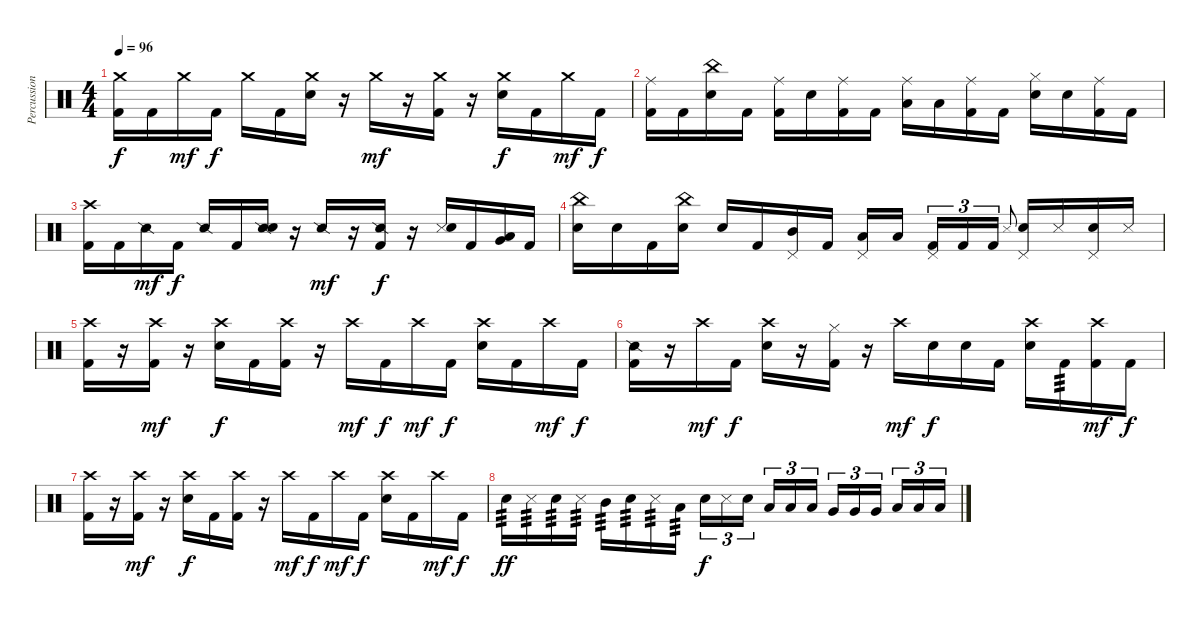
\track ("Percussion" "Percussion") {instrument percussion}
\staff {score}
\articulation defaults
\ts (4 4)
\tempo 96
\clef neutral
\ks c
("Crash medium (hit)" "Kick (hit) 2").16{dy f} "Kick (hit) 2".16 "Crash medium (hit)".16{dy mf} "Kick (hit) 2".16{dy f} "Crash medium (hit)".16 "Kick (hit) 2".16 ("Crash medium (hit)" "Snare (hit) 2").16 r.16 "Crash medium (hit)".16{dy mf} r.16 ("Crash medium (hit)" "Kick (hit) 2").16 r.16 ("Crash medium (hit)" "Snare (hit) 2").16{dy f} "Kick (hit) 2".16 "Crash medium (hit)".16{dy mf} "Kick (hit) 2".16{dy f} |
("Ride (middle)" "Kick (hit) 2").16 "Kick (hit) 2".16 ("China (hit)" "Snare (hit) 2").16 "Kick (hit) 2".16 ("Ride (middle)" "Kick (hit) 2").16 "Snare (hit) 2".16 ("Ride (middle)" "Kick (hit) 2").16 "Kick (hit) 2".16 ("Ride (middle)" "Low Tom (hit)").16 "Low Tom (hit)".16 ("Ride (middle)" "Kick (hit) 2").16 "Kick (hit) 2".16 ("Hi-Hat (closed)" "Snare (hit) 2").16 "Snare (hit) 2".16 ("Ride (middle)" "Kick (hit) 2").16 "Kick (hit) 2".16 |
("Crash high (hit)" "Kick (hit) 2").16 "Kick (hit) 2".16 "Snare (side stick) 2".16{dy mf} "Kick (hit) 2".16{dy f} "Snare (side stick) 2".16 "Kick (hit) 2".16 ("Snare (side stick) 2" "Snare (hit) 2").16 r.16 "Snare (side stick) 2".16{dy mf} r.16 ("Snare (side stick) 2" "Kick (hit) 2").16{dy f} r.16 ("Metronome (hit)" "Snare (hit) 2").16{bu 60} "Kick (hit) 2".16 ("Low Tom (hit)" "Very Low Tom (hit)").16{bu 60} "Kick (hit) 2".16 |
("China (hit)" "Snare (hit) 2").16 "Snare (hit) 2".16 "Kick (hit) 2".16 ("China (hit)" "Snare (hit) 2").16 "Snare (hit) 2".16 "Kick (hit) 2".16 ("Pedal Hi-Hat (hit)" "Mid Tom (hit)").16 "Kick (hit) 2".16 ("Pedal Hi-Hat (hit)" "Low Tom (hit)").16 "Low Tom (hit)".16{beam splitsecondary} ("Pedal Hi-Hat (hit)" "Kick (hit) 2").16{tu (3 2)} "Kick (hit) 2".16{tu (3 2)} "Kick (hit) 2".16{tu (3 2)} "Metronome (hit)".8{gr onbeat} ("Pedal Hi-Hat (hit)" "Snare (hit) 2").16 "Metronome (hit)".16 ("Pedal Hi-Hat (hit)" "Snare (hit) 2").16 "Metronome (hit)".16 |
("Crash high (hit)" "Kick (hit) 2").16 r.16 ("Crash high (hit)" "Kick (hit) 2").16{dy mf} r.16 ("Crash high (hit)" "Snare (hit) 2").16{dy f} "Kick (hit) 2".16 ("Crash high (hit)" "Kick (hit) 2").16 r.16 "Crash high (hit)".16{dy mf} "Kick (hit) 2".16{dy f} "Crash high (hit)".16{dy mf} "Kick (hit) 2".16{dy f} ("Crash high (hit)" "Snare (hit) 2").16 "Kick (hit) 2".16 "Crash high (hit)".16{dy mf} "Kick (hit) 2".16{dy f} |
("Snare (side stick) 2" "Kick (hit) 2").16 r.16 "Crash high (hit)".16{dy mf} "Kick (hit) 2".16{dy f} ("Crash high (hit)" "Snare (hit) 2").16 r.16 ("Hi-Hat (closed)" "Kick (hit) 2").16 r.16 "Crash high (hit)".16{dy mf} "Snare (hit) 2".16{dy f} "Snare (hit)".16 "Kick (hit) 2".16 ("Crash high (hit)" "Snare (hit) 2").16 "Kick (hit) 2".16{tp 3} ("Crash high (hit)" "Kick (hit) 2").16{dy mf} "Kick (hit) 2".16{dy f} |
("Crash high (hit)" "Kick (hit) 2").16 r.16 ("Crash high (hit)" "Kick (hit) 2").16{dy mf} r.16 ("Crash high (hit)" "Snare (hit) 2").16{dy f} "Kick (hit) 2".16 ("Crash high (hit)" "Kick (hit) 2").16 r.16 "Crash high (hit)".16{dy mf} "Kick (hit) 2".16{dy f} "Crash high (hit)".16{dy mf} "Kick (hit) 2".16{dy f} ("Crash high (hit)" "Snare (hit) 2").16 "Kick (hit) 2".16 "Crash high (hit)".16{dy mf} "Kick (hit) 2".16{dy f} |
"Snare (hit) 2".16{tp 3 dy ff} "Metronome (hit)".16{tp 3} "Snare (hit) 2".16{tp 3} "Metronome (hit)".16{tp 3} "Mid Tom (hit)".16{tp 3} "Snare (hit) 2".16{tp 3} "Metronome (hit)".16{tp 3} "Low Tom (hit)".16{tp 3} "Snare (hit) 2".16{tu (3 2) dy f} "Metronome (hit)".16{tu (3 2)} "Snare (hit) 2".16{tu (3 2) beam splitsecondary} "Low Tom (hit)".16{tu (3 2)} "Low Tom (hit)".16{tu (3 2)} "Low Tom (hit)".16{tu (3 2)} "Very Low Tom (hit)".16{tu (3 2)} "Very Low Tom (hit)".16{tu (3 2)} "Very Low Tom (hit)".16{tu (3 2) beam splitsecondary} "Low Floor Tom (hit)".16{tu (3 2)} "Low Floor Tom (hit)".16{tu (3 2)} "Low Floor Tom (hit)".16{tu (3 2)}
